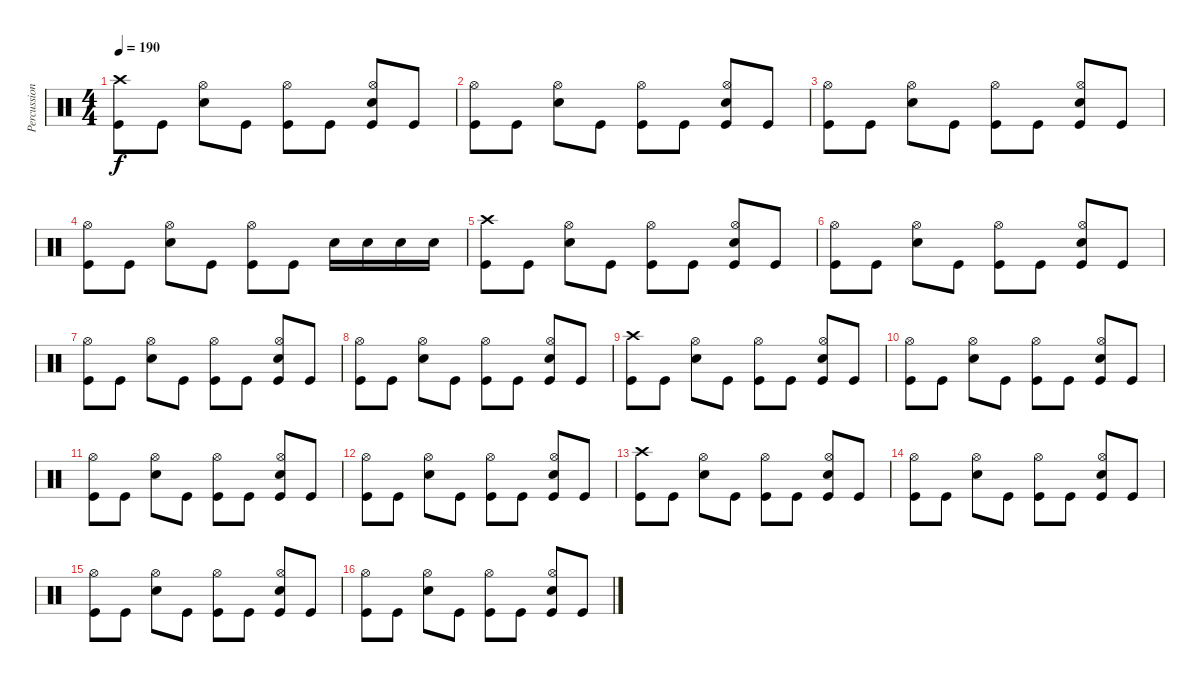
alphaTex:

\track ("Percussion" "Percussion") {instrument percussion}
\staff {score}
\articulation defaults
\ts (4 4)
\tempo 190
\clef neutral
\ks c
("Crash high (hit)" "Kick (hit)").8{dy f} "Kick (hit)".8 ("Hi-Hat (open)" "Snare (hit) 2").8 "Kick (hit)".8 ("Hi-Hat (open)" "Kick (hit)").8 "Kick (hit)".8 ("Hi-Hat (open)" "Snare (hit) 2" "Kick (hit)").8 "Kick (hit)".8 |
("Hi-Hat (open)" "Kick (hit)").8 "Kick (hit)".8 ("Hi-Hat (open)" "Snare (hit) 2").8 "Kick (hit)".8 ("Hi-Hat (open)" "Kick (hit)").8 "Kick (hit)".8 ("Hi-Hat (open)" "Snare (hit) 2" "Kick (hit)").8 "Kick (hit)".8 |
("Hi-Hat (open)" "Kick (hit)").8 "Kick (hit)".8 ("Hi-Hat (open)" "Snare (hit) 2").8 "Kick (hit)".8 ("Hi-Hat (open)" "Kick (hit)").8 "Kick (hit)".8 ("Hi-Hat (open)" "Snare (hit) 2" "Kick (hit)").8 "Kick (hit)".8 |
("Hi-Hat (open)" "Kick (hit)").8 "Kick (hit)".8 ("Hi-Hat (open)" "Snare (hit) 2").8 "Kick (hit)".8 ("Hi-Hat (open)" "Kick (hit)").8 "Kick (hit)".8 "Snare (hit) 2".16 "Snare (hit) 2".16 "Snare (hit) 2".16 "Snare (hit) 2".16 |
("Crash high (hit)" "Kick (hit)").8 "Kick (hit)".8 ("Hi-Hat (open)" "Snare (hit) 2").8 "Kick (hit)".8 ("Hi-Hat (open)" "Kick (hit)").8 "Kick (hit)".8 ("Hi-Hat (open)" "Snare (hit) 2" "Kick (hit)").8 "Kick (hit)".8 |
("Hi-Hat (open)" "Kick (hit)").8 "Kick (hit)".8 ("Hi-Hat (open)" "Snare (hit) 2").8 "Kick (hit)".8 ("Hi-Hat (open)" "Kick (hit)").8 "Kick (hit)".8 ("Hi-Hat (open)" "Snare (hit) 2" "Kick (hit)").8 "Kick (hit)".8 |
("Hi-Hat (open)" "Kick (hit)").8 "Kick (hit)".8 ("Hi-Hat (open)" "Snare (hit) 2").8 "Kick (hit)".8 ("Hi-Hat (open)" "Kick (hit)").8 "Kick (hit)".8 ("Hi-Hat (open)" "Snare (hit) 2" "Kick (hit)").8 "Kick (hit)".8 |
("Hi-Hat (open)" "Kick (hit)").8 "Kick (hit)".8 ("Hi-Hat (open)" "Snare (hit) 2").8 "Kick (hit)".8 ("Hi-Hat (open)" "Kick (hit)").8 "Kick (hit)".8 ("Hi-Hat (open)" "Snare (hit) 2" "Kick (hit)").8 "Kick (hit)".8 |
("Crash high (hit)" "Kick (hit)").8 "Kick (hit)".8 ("Hi-Hat (open)" "Snare (hit) 2").8 "Kick (hit)".8 ("Hi-Hat (open)" "Kick (hit)").8 "Kick (hit)".8 ("Hi-Hat (open)" "Snare (hit) 2" "Kick (hit)").8 "Kick (hit)".8 |
("Hi-Hat (open)" "Kick (hit)").8 "Kick (hit)".8 ("Hi-Hat (open)" "Snare (hit) 2").8 "Kick (hit)".8 ("Hi-Hat (open)" "Kick (hit)").8 "Kick (hit)".8 ("Hi-Hat (open)" "Snare (hit) 2" "Kick (hit)").8 "Kick (hit)".8 |
("Hi-Hat (open)" "Kick (hit)").8 "Kick (hit)".8 ("Hi-Hat (open)" "Snare (hit) 2").8 "Kick (hit)".8 ("Hi-Hat (open)" "Kick (hit)").8 "Kick (hit)".8 ("Hi-Hat (open)" "Snare (hit) 2" "Kick (hit)").8 "Kick (hit)".8 |
("Hi-Hat (open)" "Kick (hit)").8 "Kick (hit)".8 ("Hi-Hat (open)" "Snare (hit) 2").8 "Kick (hit)".8 ("Hi-Hat (open)" "Kick (hit)").8 "Kick (hit)".8 ("Hi-Hat (open)" "Snare (hit) 2" "Kick (hit)").8 "Kick (hit)".8 |
("Crash high (hit)" "Kick (hit)").8 "Kick (hit)".8 ("Hi-Hat (open)" "Snare (hit) 2").8 "Kick (hit)".8 ("Hi-Hat (open)" "Kick (hit)").8 "Kick (hit)".8 ("Hi-Hat (open)" "Snare (hit) 2" "Kick (hit)").8 "Kick (hit)".8 |
("Hi-Hat (open)" "Kick (hit)").8 "Kick (hit)".8 ("Hi-Hat (open)" "Snare (hit) 2").8 "Kick (hit)".8 ("Hi-Hat (open)" "Kick (hit)").8 "Kick (hit)".8 ("Hi-Hat (open)" "Snare (hit) 2" "Kick (hit)").8 "Kick (hit)".8 |
("Hi-Hat (open)" "Kick (hit)").8 "Kick (hit)".8 ("Hi-Hat (open)" "Snare (hit) 2").8 "Kick (hit)".8 ("Hi-Hat (open)" "Kick (hit)").8 "Kick (hit)".8 ("Hi-Hat (open)" "Snare (hit) 2" "Kick (hit)").8 "Kick (hit)".8 |
("Hi-Hat (open)" "Kick (hit)").8 "Kick (hit)".8 ("Hi-Hat (open)" "Snare (hit) 2").8 "Kick (hit)".8 ("Hi-Hat (open)" "Kick (hit)").8 "Kick (hit)".8 ("Hi-Hat (open)" "Snare (hit) 2" "Kick (hit)").8 "Kick (hit)".8
